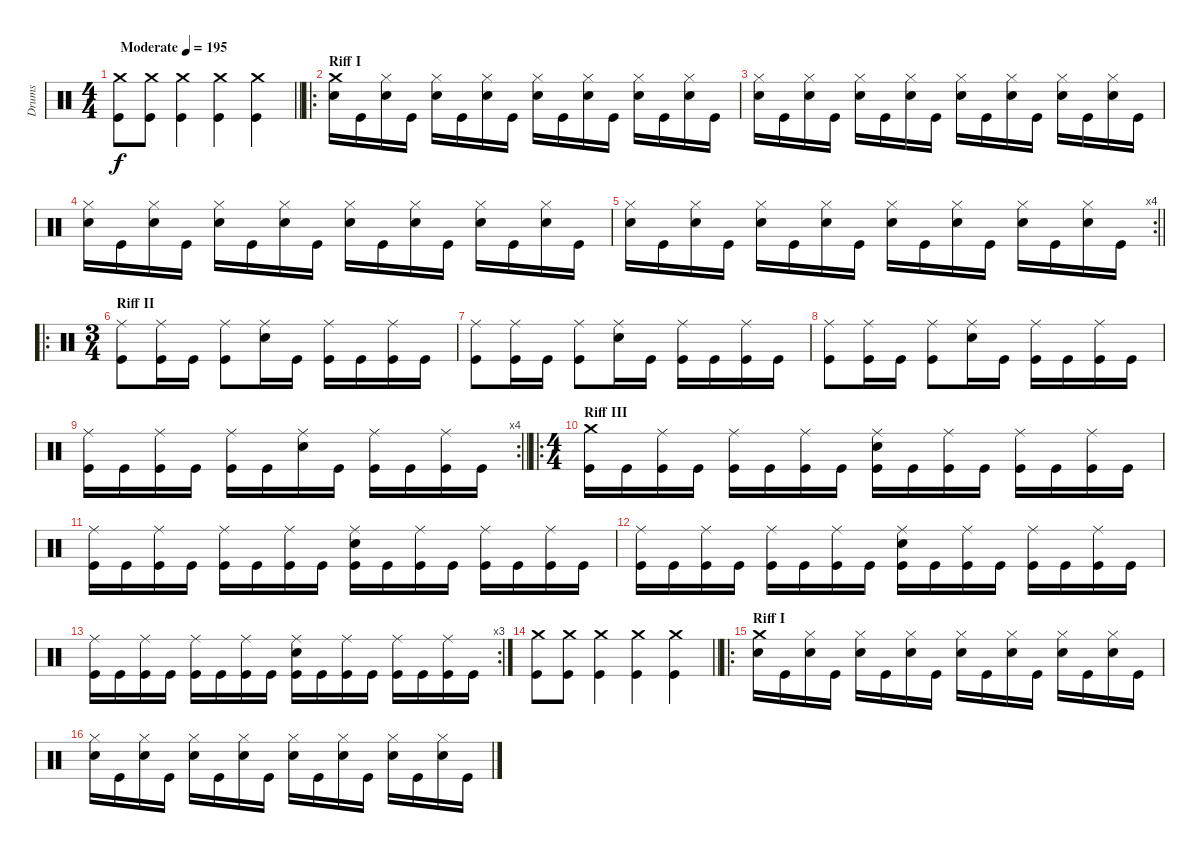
\track ("Drums" "Drums") {instrument percussion}
\staff {score}
\articulation defaults
\ts (4 4)
\tempo (195 "Moderate")
\clef neutral
\barLineRight lightlight
\ks c
("Crash medium (hit)" "Kick (hit)").8{dy f} ("Crash medium (hit)" "Kick (hit)").8 ("Crash medium (hit)" "Kick (hit)").4 ("Crash medium (hit)" "Kick (hit)").4 ("Crash medium (hit)" "Kick (hit)").4 |
\ro
\section ("" "Riff I")
("Crash medium (hit)" "Electric Snare (hit)").16 "Kick (hit)".16 ("Hi-Hat (closed)" "Electric Snare (hit)").16 "Kick (hit)".16 ("Hi-Hat (closed)" "Electric Snare (hit)").16 "Kick (hit)".16 ("Hi-Hat (closed)" "Electric Snare (hit)").16 "Kick (hit)".16 ("Hi-Hat (closed)" "Electric Snare (hit)").16 "Kick (hit)".16 ("Hi-Hat (closed)" "Electric Snare (hit)").16 "Kick (hit)".16 ("Hi-Hat (closed)" "Electric Snare (hit)").16 "Kick (hit)".16 ("Hi-Hat (closed)" "Electric Snare (hit)").16 "Kick (hit)".16 |
("Hi-Hat (closed)" "Electric Snare (hit)").16 "Kick (hit)".16 ("Hi-Hat (closed)" "Electric Snare (hit)").16 "Kick (hit)".16 ("Hi-Hat (closed)" "Electric Snare (hit)").16 "Kick (hit)".16 ("Hi-Hat (closed)" "Electric Snare (hit)").16 "Kick (hit)".16 ("Hi-Hat (closed)" "Electric Snare (hit)").16 "Kick (hit)".16 ("Hi-Hat (closed)" "Electric Snare (hit)").16 "Kick (hit)".16 ("Hi-Hat (closed)" "Electric Snare (hit)").16 "Kick (hit)".16 ("Hi-Hat (closed)" "Electric Snare (hit)").16 "Kick (hit)".16 |
("Hi-Hat (closed)" "Electric Snare (hit)").16 "Kick (hit)".16 ("Hi-Hat (closed)" "Electric Snare (hit)").16 "Kick (hit)".16 ("Hi-Hat (closed)" "Electric Snare (hit)").16 "Kick (hit)".16 ("Hi-Hat (closed)" "Electric Snare (hit)").16 "Kick (hit)".16 ("Hi-Hat (closed)" "Electric Snare (hit)").16 "Kick (hit)".16 ("Hi-Hat (closed)" "Electric Snare (hit)").16 "Kick (hit)".16 ("Hi-Hat (closed)" "Electric Snare (hit)").16 "Kick (hit)".16 ("Hi-Hat (closed)" "Electric Snare (hit)").16 "Kick (hit)".16 |
\rc 4
\barLineRight lightlight
("Hi-Hat (closed)" "Electric Snare (hit)").16 "Kick (hit)".16 ("Hi-Hat (closed)" "Electric Snare (hit)").16 "Kick (hit)".16 ("Hi-Hat (closed)" "Electric Snare (hit)").16 "Kick (hit)".16 ("Hi-Hat (closed)" "Electric Snare (hit)").16 "Kick (hit)".16 ("Hi-Hat (closed)" "Electric Snare (hit)").16 "Kick (hit)".16 ("Hi-Hat (closed)" "Electric Snare (hit)").16 "Kick (hit)".16 ("Hi-Hat (closed)" "Electric Snare (hit)").16 "Kick (hit)".16 ("Hi-Hat (closed)" "Electric Snare (hit)").16 "Kick (hit)".16 |
\ro
\ts (3 4)
\section ("" "Riff II")
("Ride (middle)" "Kick (hit)").8 ("Ride (middle)" "Kick (hit)").16 "Kick (hit)".16 ("Ride (middle)" "Kick (hit)").8 ("Ride (middle)" "Electric Snare (hit)").16 "Kick (hit)".16 ("Ride (middle)" "Kick (hit)").16 "Kick (hit)".16 ("Ride (middle)" "Kick (hit)").16 "Kick (hit)".16 |
("Ride (middle)" "Kick (hit)").8 ("Ride (middle)" "Kick (hit)").16 "Kick (hit)".16 ("Ride (middle)" "Kick (hit)").8 ("Ride (middle)" "Electric Snare (hit)").16 "Kick (hit)".16 ("Ride (middle)" "Kick (hit)").16 "Kick (hit)".16 ("Ride (middle)" "Kick (hit)").16 "Kick (hit)".16 |
("Ride (middle)" "Kick (hit)").8 ("Ride (middle)" "Kick (hit)").16 "Kick (hit)".16 ("Ride (middle)" "Kick (hit)").8 ("Ride (middle)" "Electric Snare (hit)").16 "Kick (hit)".16 ("Ride (middle)" "Kick (hit)").16 "Kick (hit)".16 ("Ride (middle)" "Kick (hit)").16 "Kick (hit)".16 |
\rc 4
\barLineRight lightlight
("Ride (middle)" "Kick (hit)").16 "Kick (hit)".16 ("Ride (middle)" "Kick (hit)").16 "Kick (hit)".16 ("Ride (middle)" "Kick (hit)").16 "Kick (hit)".16 ("Ride (middle)" "Electric Snare (hit)").16 "Kick (hit)".16 ("Ride (middle)" "Kick (hit)").16 "Kick (hit)".16 ("Ride (middle)" "Kick (hit)").16 "Kick (hit)".16 |
\ro
\ts (4 4)
\section ("" "Riff III")
("Crash medium (hit)" "Kick (hit)").16 "Kick (hit)".16 ("Ride (middle)" "Kick (hit)").16 "Kick (hit)".16 ("Ride (middle)" "Kick (hit)").16 "Kick (hit)".16 ("Ride (middle)" "Kick (hit)").16 "Kick (hit)".16 ("Ride (middle)" "Electric Snare (hit)" "Kick (hit)").16 "Kick (hit)".16 ("Ride (middle)" "Kick (hit)").16 "Kick (hit)".16 ("Ride (middle)" "Kick (hit)").16 "Kick (hit)".16 ("Ride (middle)" "Kick (hit)").16 "Kick (hit)".16 |
("Ride (middle)" "Kick (hit)").16 "Kick (hit)".16 ("Ride (middle)" "Kick (hit)").16 "Kick (hit)".16 ("Ride (middle)" "Kick (hit)").16 "Kick (hit)".16 ("Ride (middle)" "Kick (hit)").16 "Kick (hit)".16 ("Ride (middle)" "Electric Snare (hit)" "Kick (hit)").16 "Kick (hit)".16 ("Ride (middle)" "Kick (hit)").16 "Kick (hit)".16 ("Ride (middle)" "Kick (hit)").16 "Kick (hit)".16 ("Ride (middle)" "Kick (hit)").16 "Kick (hit)".16 |
("Ride (middle)" "Kick (hit)").16 "Kick (hit)".16 ("Ride (middle)" "Kick (hit)").16 "Kick (hit)".16 ("Ride (middle)" "Kick (hit)").16 "Kick (hit)".16 ("Ride (middle)" "Kick (hit)").16 "Kick (hit)".16 ("Ride (middle)" "Electric Snare (hit)" "Kick (hit)").16 "Kick (hit)".16 ("Ride (middle)" "Kick (hit)").16 "Kick (hit)".16 ("Ride (middle)" "Kick (hit)").16 "Kick (hit)".16 ("Ride (middle)" "Kick (hit)").16 "Kick (hit)".16 |
\rc 3
("Ride (middle)" "Kick (hit)").16 "Kick (hit)".16 ("Ride (middle)" "Kick (hit)").16 "Kick (hit)".16 ("Ride (middle)" "Kick (hit)").16 "Kick (hit)".16 ("Ride (middle)" "Kick (hit)").16 "Kick (hit)".16 ("Ride (middle)" "Electric Snare (hit)" "Kick (hit)").16 "Kick (hit)".16 ("Ride (middle)" "Kick (hit)").16 "Kick (hit)".16 ("Ride (middle)" "Kick (hit)").16 "Kick (hit)".16 ("Ride (middle)" "Kick (hit)").16 "Kick (hit)".16 |
\barLineRight lightlight
("Crash medium (hit)" "Kick (hit)").8 ("Crash medium (hit)" "Kick (hit)").8 ("Crash medium (hit)" "Kick (hit)").4 ("Crash medium (hit)" "Kick (hit)").4 ("Crash medium (hit)" "Kick (hit)").4 |
\ro
\section ("" "Riff I")
("Crash medium (hit)" "Electric Snare (hit)").16 "Kick (hit)".16 ("Hi-Hat (closed)" "Electric Snare (hit)").16 "Kick (hit)".16 ("Hi-Hat (closed)" "Electric Snare (hit)").16 "Kick (hit)".16 ("Hi-Hat (closed)" "Electric Snare (hit)").16 "Kick (hit)".16 ("Hi-Hat (closed)" "Electric Snare (hit)").16 "Kick (hit)".16 ("Hi-Hat (closed)" "Electric Snare (hit)").16 "Kick (hit)".16 ("Hi-Hat (closed)" "Electric Snare (hit)").16 "Kick (hit)".16 ("Hi-Hat (closed)" "Electric Snare (hit)").16 "Kick (hit)".16 |
("Hi-Hat (closed)" "Electric Snare (hit)").16 "Kick (hit)".16 ("Hi-Hat (closed)" "Electric Snare (hit)").16 "Kick (hit)".16 ("Hi-Hat (closed)" "Electric Snare (hit)").16 "Kick (hit)".16 ("Hi-Hat (closed)" "Electric Snare (hit)").16 "Kick (hit)".16 ("Hi-Hat (closed)" "Electric Snare (hit)").16 "Kick (hit)".16 ("Hi-Hat (closed)" "Electric Snare (hit)").16 "Kick (hit)".16 ("Hi-Hat (closed)" "Electric Snare (hit)").16 "Kick (hit)".16 ("Hi-Hat (closed)" "Electric Snare (hit)").16 "Kick (hit)".16
